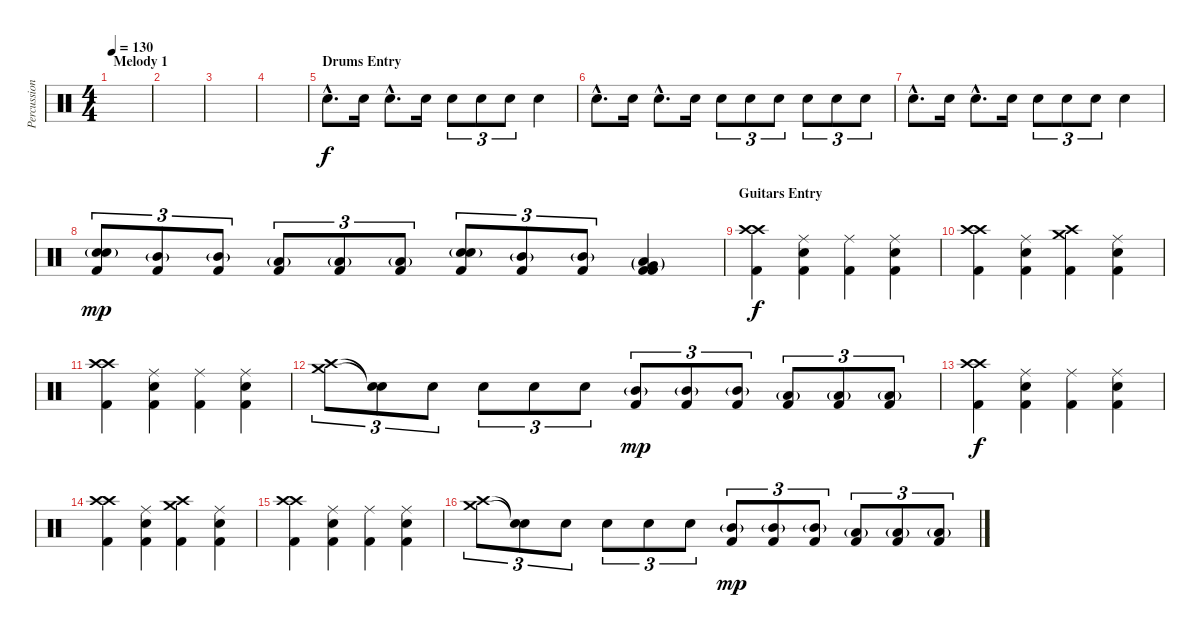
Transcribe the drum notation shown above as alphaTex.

\track ("Percussion - Rhythm" "Percussion") {instrument percussion}
\staff {score}
\articulation defaults
\ts (4 4)
\section ("" "Melody 1")
\tempo 130
\clef neutral
\ks c
|
|
|
|
\section ("" "Drums Entry")
"Snare (hit) 2"{hac}.8{d} "Snare (hit) 2".16 "Snare (hit) 2"{hac}.8{d} "Snare (hit) 2".16 "Snare (hit) 2".8{tu (3 2)} "Snare (hit) 2".8{tu (3 2)} "Snare (hit) 2".8{tu (3 2)} "Snare (hit) 2".4 |
"Snare (hit) 2"{hac}.8{d} "Snare (hit) 2".16 "Snare (hit) 2"{hac}.8{d} "Snare (hit) 2".16 "Snare (hit) 2".8{tu (3 2)} "Snare (hit) 2".8{tu (3 2)} "Snare (hit) 2".8{tu (3 2)} "Snare (hit) 2".8{tu (3 2)} "Snare (hit) 2".8{tu (3 2)} "Snare (hit) 2".8{tu (3 2)} |
"Snare (hit) 2"{hac}.8{d} "Snare (hit) 2".16 "Snare (hit) 2"{hac}.8{d} "Snare (hit) 2".16 "Snare (hit) 2".8{tu (3 2)} "Snare (hit) 2".8{tu (3 2)} "Snare (hit) 2".8{tu (3 2)} "Snare (hit) 2".4 |
("Snare (hit) 2" "Electric Snare (hit)"{g} "Kick (hit) 2").8{tu (3 2) dy mp volume 16} ("Mid Tom (hit)"{g} "Kick (hit) 2").8{tu (3 2)} ("Mid Tom (hit)"{g} "Kick (hit) 2").8{tu (3 2)} ("Low Tom (hit)"{g} "Kick (hit) 2").8{tu (3 2)} ("Low Tom (hit)"{g} "Kick (hit) 2").8{tu (3 2)} ("Low Tom (hit)"{g} "Kick (hit) 2").8{tu (3 2)} ("Snare (hit) 2" "Electric Snare (hit)"{g} "Kick (hit) 2").8{tu (3 2)} ("Mid Tom (hit)"{g} "Kick (hit) 2").8{tu (3 2)} ("Mid Tom (hit)"{g} "Kick (hit) 2").8{tu (3 2)} ("Very Low Tom (hit)"{g} "Kick (hit) 2" "Low Tom (hit)"{g} "Kick (hit) 2").4 |
\section ("" "Guitars Entry")
("Crash high (hit)" "Crash high (hit)" "Kick (hit) 2").4{dy f volume 13} ("Ride (middle)" "Snare (hit) 2" "Kick (hit) 2").4 ("Ride (middle)" "Kick (hit) 2").4 ("Ride (middle)" "Snare (hit) 2" "Kick (hit) 2").4 |
("Crash high (hit)" "Crash high (hit)" "Kick (hit) 2").4 ("Ride (middle)" "Snare (hit) 2" "Kick (hit) 2").4 ("Crash medium (hit)" "Crash high (hit)" "Kick (hit) 2").4 ("Ride (middle)" "Snare (hit) 2" "Kick (hit) 2").4 |
("Crash high (hit)" "Crash high (hit)" "Kick (hit) 2").4{volume 13} ("Ride (middle)" "Snare (hit) 2" "Kick (hit) 2").4 ("Ride (middle)" "Kick (hit) 2").4 ("Ride (middle)" "Snare (hit) 2" "Kick (hit) 2").4 |
("Crash medium (hit)" "Crash high (hit)").8{tu (3 2)} ("Snare (hit)"{t} "Snare (hit)"{t}).8{tu (3 2)} "Snare (hit) 2".8{tu (3 2)} "Snare (hit) 2".8{tu (3 2)} "Snare (hit) 2".8{tu (3 2)} "Snare (hit) 2".8{tu (3 2)} ("Mid Tom (hit)"{g} "Kick (hit) 2").8{tu (3 2) dy mp} ("Mid Tom (hit)"{g} "Kick (hit) 2").8{tu (3 2)} ("Mid Tom (hit)"{g} "Kick (hit) 2").8{tu (3 2)} ("Low Tom (hit)"{g} "Kick (hit) 2").8{tu (3 2)} ("Low Tom (hit)"{g} "Kick (hit) 2").8{tu (3 2)} ("Low Tom (hit)"{g} "Kick (hit) 2").8{tu (3 2)} |
("Crash high (hit)" "Crash high (hit)" "Kick (hit) 2").4{dy f volume 13} ("Ride (middle)" "Snare (hit) 2" "Kick (hit) 2").4 ("Ride (middle)" "Kick (hit) 2").4 ("Ride (middle)" "Snare (hit) 2" "Kick (hit) 2").4 |
("Crash high (hit)" "Crash high (hit)" "Kick (hit) 2").4 ("Ride (middle)" "Snare (hit) 2" "Kick (hit) 2").4 ("Crash medium (hit)" "Crash high (hit)" "Kick (hit) 2").4 ("Ride (middle)" "Snare (hit) 2" "Kick (hit) 2").4 |
("Crash high (hit)" "Crash high (hit)" "Kick (hit) 2").4{volume 13} ("Ride (middle)" "Snare (hit) 2" "Kick (hit) 2").4 ("Ride (middle)" "Kick (hit) 2").4 ("Ride (middle)" "Snare (hit) 2" "Kick (hit) 2").4 |
("Crash medium (hit)" "Crash high (hit)").8{tu (3 2) volume 16} ("Snare (hit)"{t} "Snare (hit)"{t}).8{tu (3 2)} "Snare (hit) 2".8{tu (3 2)} "Snare (hit) 2".8{tu (3 2)} "Snare (hit) 2".8{tu (3 2)} "Snare (hit) 2".8{tu (3 2)} ("Mid Tom (hit)"{g} "Kick (hit) 2").8{tu (3 2) dy mp} ("Mid Tom (hit)"{g} "Kick (hit) 2").8{tu (3 2)} ("Mid Tom (hit)"{g} "Kick (hit) 2").8{tu (3 2)} ("Low Tom (hit)"{g} "Kick (hit) 2").8{tu (3 2)} ("Low Tom (hit)"{g} "Kick (hit) 2").8{tu (3 2)} ("Low Tom (hit)"{g} "Kick (hit) 2").8{tu (3 2)}
